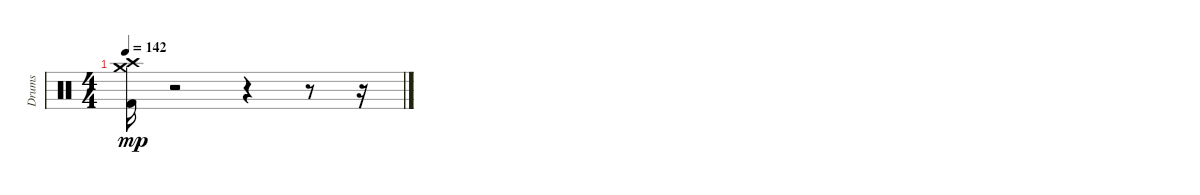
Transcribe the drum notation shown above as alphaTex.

\track ("Drums" "Drums") {instrument percussion}
\staff {score}
\articulation defaults
\ts (4 4)
\tempo 142
\clef neutral
\ks c
("Kick (hit) 2" "Crash medium (hit)" "Crash high (hit)").16{dy mp} r.2 r.4 r.8 r.16
